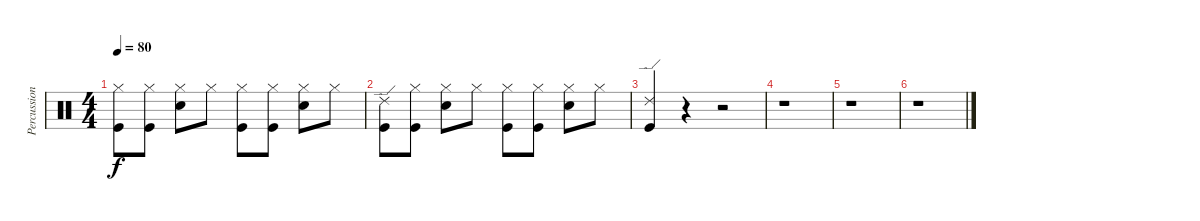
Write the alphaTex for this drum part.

\track ("Percussions" "Percussion") {instrument percussion}
\staff {score}
\articulation defaults
\ts (4 4)
\tempo 80
\clef neutral
\ks c
("Hi-Hat (closed)" "Kick (hit)").8{dy f} ("Hi-Hat (closed)" "Kick (hit)").8 ("Hi-Hat (closed)" "Snare (hit) 2").8 "Hi-Hat (closed)".8 ("Hi-Hat (closed)" "Kick (hit)").8 ("Hi-Hat (closed)" "Kick (hit)").8 ("Hi-Hat (closed)" "Snare (hit) 2").8 "Hi-Hat (closed)".8 |
("Ride (edge) 2" "Kick (hit)").8 ("Hi-Hat (closed)" "Kick (hit)").8 ("Hi-Hat (closed)" "Snare (hit) 2").8 "Hi-Hat (closed)".8 ("Hi-Hat (closed)" "Kick (hit)").8 ("Hi-Hat (closed)" "Kick (hit)").8 ("Hi-Hat (closed)" "Snare (hit) 2").8 "Hi-Hat (closed)".8 |
("Ride (edge) 2" "Kick (hit)").4 r.4 r.2 |
r.1 |
r.1 |
r.1
